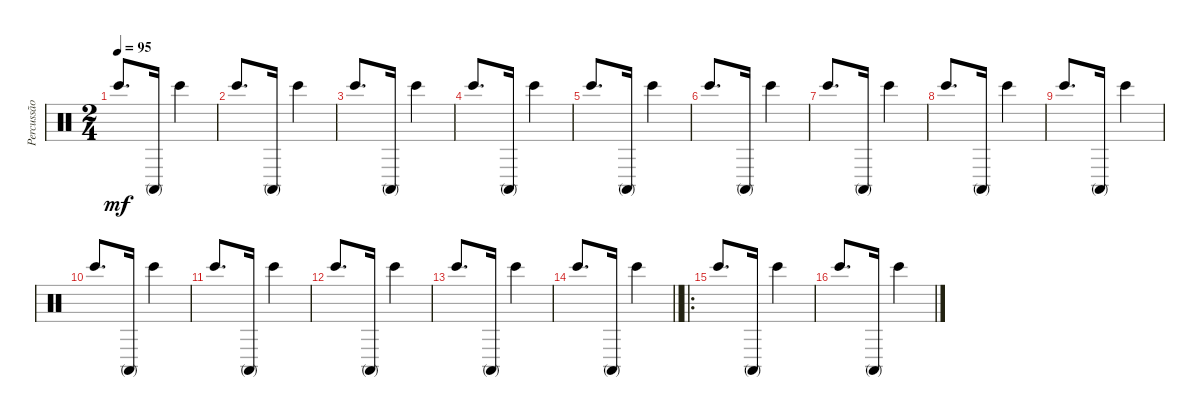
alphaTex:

\track ("Percussão" "Percussão") {instrument percussion}
\staff {score}
\articulation defaults
\ts (2 4)
\tempo 95
\clef neutral
\ks c "Bongo High (hit)".8{d dy mf} "Conga high (mute)".16 "Bongo High (hit)".4
|
"Bongo High (hit)".8{d} "Conga high (mute)".16 "Bongo High (hit)".4 |
"Bongo High (hit)".8{d} "Conga high (mute)".16 "Bongo High (hit)".4 |
"Bongo High (hit)".8{d} "Conga high (mute)".16 "Bongo High (hit)".4 |
"Bongo High (hit)".8{d} "Conga high (mute)".16 "Bongo High (hit)".4 |
"Bongo High (hit)".8{d} "Conga high (mute)".16 "Bongo High (hit)".4 |
"Bongo High (hit)".8{d} "Conga high (mute)".16 "Bongo High (hit)".4 |
"Bongo High (hit)".8{d} "Conga high (mute)".16 "Bongo High (hit)".4 |
"Bongo High (hit)".8{d} "Conga high (mute)".16 "Bongo High (hit)".4 |
"Bongo High (hit)".8{d} "Conga high (mute)".16 "Bongo High (hit)".4 |
"Bongo High (hit)".8{d} "Conga high (mute)".16 "Bongo High (hit)".4 |
"Bongo High (hit)".8{d} "Conga high (mute)".16 "Bongo High (hit)".4 |
"Bongo High (hit)".8{d} "Conga high (mute)".16 "Bongo High (hit)".4 |
\barLineRight lightlight "Bongo High (hit)".8{d} "Conga high (mute)".16 "Bongo High (hit)".4
|
\ro "Bongo High (hit)".8{d} "Conga high (mute)".16 "Bongo High (hit)".4
|
"Bongo High (hit)".8{d} "Conga high (mute)".16 "Bongo High (hit)".4
